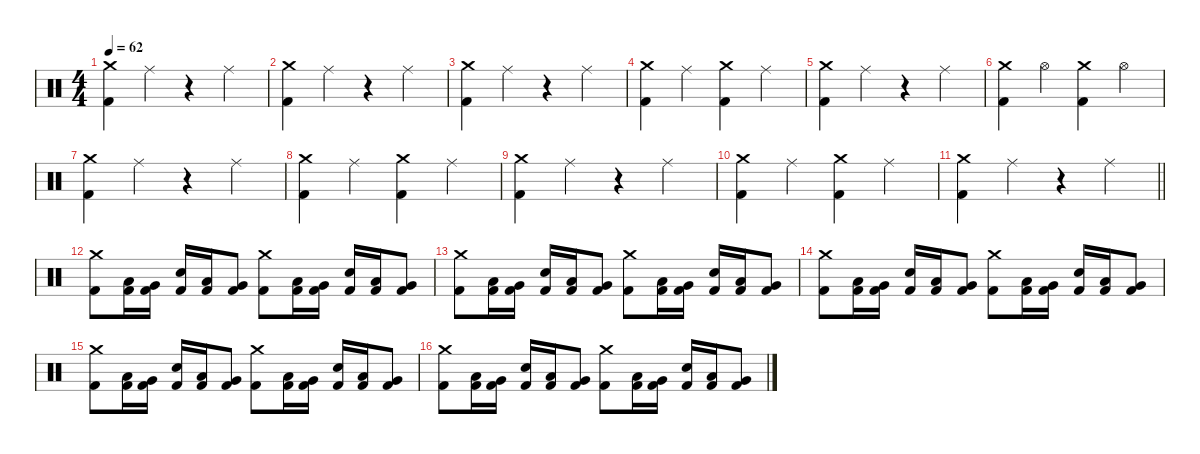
\defaultSystemsLayout 4
\hideDynamics
\bracketExtendMode nobrackets
\singleTrackTrackNamePolicy hidden
\multiTrackTrackNamePolicy hidden
\firstSystemTrackNameMode fullname
\otherSystemsTrackNameOrientation horizontal
\track ("Drums" "drm.") {instrument percussion}
\staff {score}
\articulation defaults
\ts (4 4)
\tempo 62
\clef neutral
\ks c
("Crash medium (hit)" "Kick (hit) 2").4{dy f beam Down} "Ride (middle)".4{beam Down} r.4{beam Down} "Ride (middle)".4{beam Down} |
("Crash medium (hit)" "Kick (hit) 2").4{beam Down} "Ride (middle)".4{beam Down} r.4{beam Down} "Ride (middle)".4{beam Down} |
("Crash medium (hit)" "Kick (hit) 2").4{beam Down} "Ride (middle)".4{beam Down} r.4{beam Down} "Ride (middle)".4{beam Down} |
("Crash medium (hit)" "Kick (hit) 2").4{beam Down} "Ride (middle)".4{beam Down} ("Crash medium (hit)" "Kick (hit) 2").4{beam Down} "Ride (middle)".4{beam Down} |
("Crash medium (hit)" "Kick (hit) 2").4{beam Down} "Ride (middle)".4{beam Down} r.4{beam Down} "Ride (middle)".4{beam Down} |
("Crash medium (hit)" "Kick (hit) 2").4{beam Down} "Hi-Hat (open)".4{beam Down} ("Crash medium (hit)" "Kick (hit) 2").4{beam Down} "Hi-Hat (open)".4{beam Down} |
("Crash medium (hit)" "Kick (hit) 2").4{beam Down} "Ride (middle)".4{beam Down} r.4{beam Down} "Ride (middle)".4{beam Down} |
("Crash medium (hit)" "Kick (hit) 2").4{beam Down} "Ride (middle)".4{beam Down} ("Crash medium (hit)" "Kick (hit) 2").4{beam Down} "Ride (middle)".4{beam Down} |
("Crash medium (hit)" "Kick (hit) 2").4{beam Down} "Ride (middle)".4{beam Down} r.4{beam Down} "Ride (middle)".4{beam Down} |
("Crash medium (hit)" "Kick (hit) 2").4{beam Down} "Ride (middle)".4{beam Down} ("Crash medium (hit)" "Kick (hit) 2").4{beam Down} "Ride (middle)".4{beam Down} |
\barLineRight lightlight
("Crash medium (hit)" "Kick (hit) 2").4{beam Down} "Ride (middle)".4{beam Down} r.4{beam Down} "Ride (middle)".4{beam Down} |
("Crash medium (hit)" "Kick (hit) 2").8{beam Down} ("Low Tom (hit)" "Kick (hit) 2").16{beam Down} ("Very Low Tom (hit)" "Kick (hit) 2").16{beam Down} ("Snare (hit) 2" "Kick (hit) 2").16{beam Up} ("Low Tom (hit)" "Kick (hit) 2").16{beam Up} ("Very Low Tom (hit)" "Kick (hit) 2").8{beam Up} ("Crash medium (hit)" "Kick (hit) 2").8{beam Down} ("Low Tom (hit)" "Kick (hit) 2").16{beam Down} ("Very Low Tom (hit)" "Kick (hit) 2").16{beam Down} ("Snare (hit) 2" "Kick (hit) 2").16{beam Up} ("Low Tom (hit)" "Kick (hit) 2").16{beam Up} ("Very Low Tom (hit)" "Kick (hit) 2").8{beam Up} |
("Crash medium (hit)" "Kick (hit) 2").8{beam Down} ("Low Tom (hit)" "Kick (hit) 2").16{beam Down} ("Very Low Tom (hit)" "Kick (hit) 2").16{beam Down} ("Snare (hit) 2" "Kick (hit) 2").16{beam Up} ("Low Tom (hit)" "Kick (hit) 2").16{beam Up} ("Very Low Tom (hit)" "Kick (hit) 2").8{beam Up} ("Crash medium (hit)" "Kick (hit) 2").8{beam Down} ("Low Tom (hit)" "Kick (hit) 2").16{beam Down} ("Very Low Tom (hit)" "Kick (hit) 2").16{beam Down} ("Snare (hit) 2" "Kick (hit) 2").16{beam Up} ("Low Tom (hit)" "Kick (hit) 2").16{beam Up} ("Very Low Tom (hit)" "Kick (hit) 2").8{beam Up} |
("Crash medium (hit)" "Kick (hit) 2").8{beam Down} ("Low Tom (hit)" "Kick (hit) 2").16{beam Down} ("Very Low Tom (hit)" "Kick (hit) 2").16{beam Down} ("Snare (hit) 2" "Kick (hit) 2").16{beam Up} ("Low Tom (hit)" "Kick (hit) 2").16{beam Up} ("Very Low Tom (hit)" "Kick (hit) 2").8{beam Up} ("Crash medium (hit)" "Kick (hit) 2").8{beam Down} ("Low Tom (hit)" "Kick (hit) 2").16{beam Down} ("Very Low Tom (hit)" "Kick (hit) 2").16{beam Down} ("Snare (hit) 2" "Kick (hit) 2").16{beam Up} ("Low Tom (hit)" "Kick (hit) 2").16{beam Up} ("Very Low Tom (hit)" "Kick (hit) 2").8{beam Up} |
("Crash medium (hit)" "Kick (hit) 2").8{beam Down} ("Low Tom (hit)" "Kick (hit) 2").16{beam Down} ("Very Low Tom (hit)" "Kick (hit) 2").16{beam Down} ("Snare (hit) 2" "Kick (hit) 2").16{beam Up} ("Low Tom (hit)" "Kick (hit) 2").16{beam Up} ("Very Low Tom (hit)" "Kick (hit) 2").8{beam Up} ("Crash medium (hit)" "Kick (hit) 2").8{beam Down} ("Low Tom (hit)" "Kick (hit) 2").16{beam Down} ("Very Low Tom (hit)" "Kick (hit) 2").16{beam Down} ("Snare (hit) 2" "Kick (hit) 2").16{beam Up} ("Low Tom (hit)" "Kick (hit) 2").16{beam Up} ("Very Low Tom (hit)" "Kick (hit) 2").8{beam Up} |
("Crash medium (hit)" "Kick (hit) 2").8{beam Down} ("Low Tom (hit)" "Kick (hit) 2").16{beam Down} ("Very Low Tom (hit)" "Kick (hit) 2").16{beam Down} ("Snare (hit) 2" "Kick (hit) 2").16{beam Up} ("Low Tom (hit)" "Kick (hit) 2").16{beam Up} ("Very Low Tom (hit)" "Kick (hit) 2").8{beam Up} ("Crash medium (hit)" "Kick (hit) 2").8{beam Down} ("Low Tom (hit)" "Kick (hit) 2").16{beam Down} ("Very Low Tom (hit)" "Kick (hit) 2").16{beam Down} ("Snare (hit) 2" "Kick (hit) 2").16{beam Up} ("Low Tom (hit)" "Kick (hit) 2").16{beam Up} ("Very Low Tom (hit)" "Kick (hit) 2").8{beam Up}
